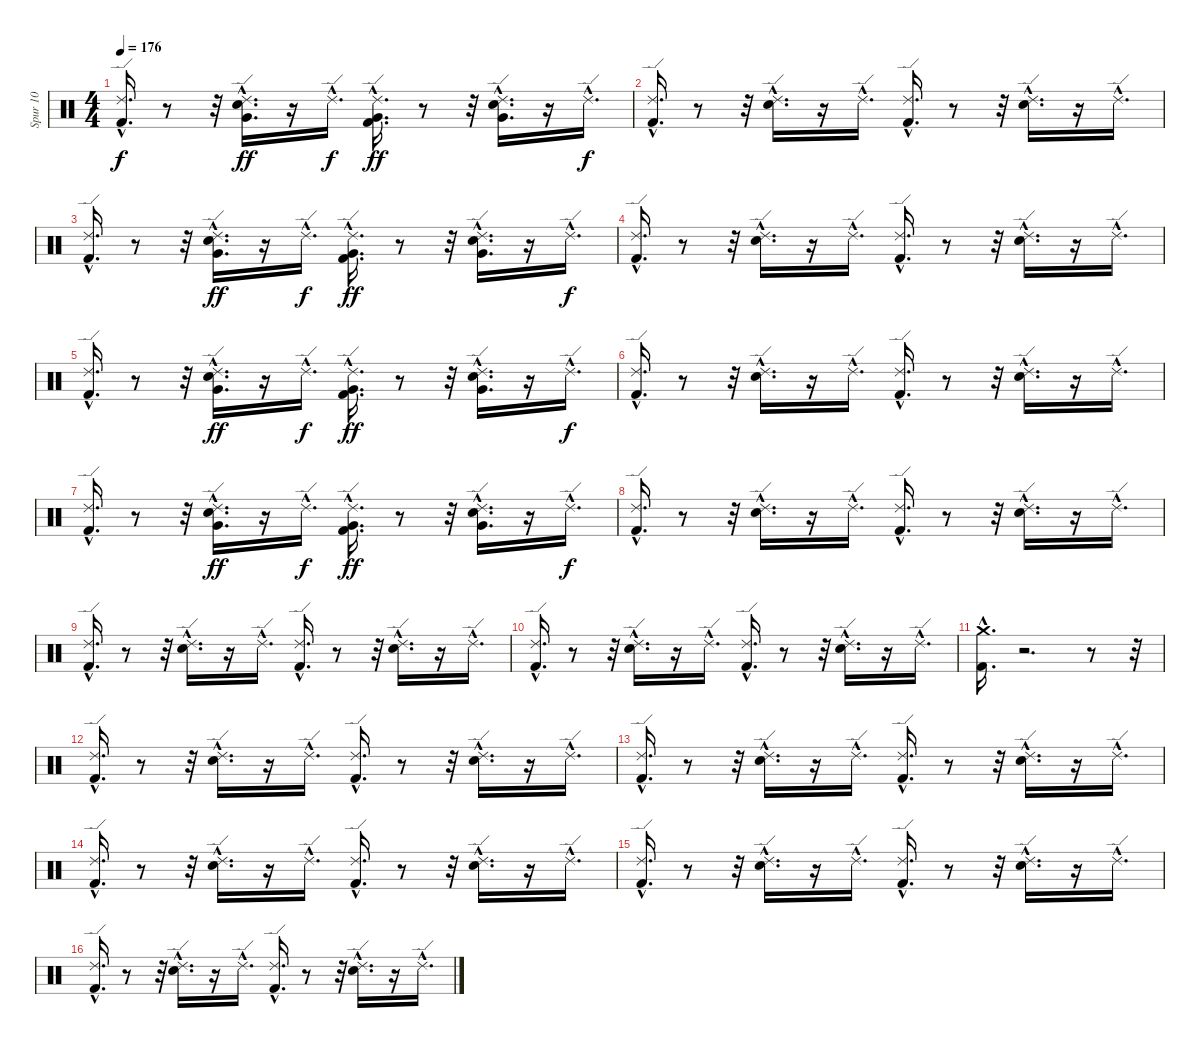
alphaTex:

\track ("Spur 10" "Spur 10") {instrument percussion}
\staff {score}
\articulation defaults
\ts (4 4)
\tempo 176
\clef neutral
\ks c
("Ride (edge) 2"{hac} "Kick (hit) 2"{hac}).16{d dy f} r.8 r.32 ("Ride (edge) 2"{hac} "Snare (hit) 2"{hac} "Very Low Tom (hit)"{hac}).16{d dy ff} r.16 "Ride (edge) 2"{hac}.16{d dy f} ("Ride (edge) 2"{hac} "Kick (hit) 2"{hac} "Very Low Tom (hit)"{hac}).16{d dy ff} r.8 r.32 ("Ride (edge) 2"{hac} "Snare (hit) 2"{hac} "Very Low Tom (hit)"{hac}).16{d} r.16 "Ride (edge) 2"{hac}.16{d dy f} |
("Ride (edge) 2"{hac} "Kick (hit) 2"{hac}).16{d} r.8 r.32 ("Ride (edge) 2"{hac} "Snare (hit) 2"{hac}).16{d} r.16 "Ride (edge) 2"{hac}.16{d} ("Ride (edge) 2"{hac} "Kick (hit) 2"{hac}).16{d} r.8 r.32 ("Ride (edge) 2"{hac} "Snare (hit) 2"{hac}).16{d} r.16 "Ride (edge) 2"{hac}.16{d} |
("Ride (edge) 2"{hac} "Kick (hit) 2"{hac}).16{d} r.8 r.32 ("Ride (edge) 2"{hac} "Snare (hit) 2"{hac} "Very Low Tom (hit)"{hac}).16{d dy ff} r.16 "Ride (edge) 2"{hac}.16{d dy f} ("Ride (edge) 2"{hac} "Kick (hit) 2"{hac} "Very Low Tom (hit)"{hac}).16{d dy ff} r.8 r.32 ("Ride (edge) 2"{hac} "Snare (hit) 2"{hac} "Very Low Tom (hit)"{hac}).16{d} r.16 "Ride (edge) 2"{hac}.16{d dy f} |
("Ride (edge) 2"{hac} "Kick (hit) 2"{hac}).16{d} r.8 r.32 ("Ride (edge) 2"{hac} "Snare (hit) 2"{hac}).16{d} r.16 "Ride (edge) 2"{hac}.16{d} ("Ride (edge) 2"{hac} "Kick (hit) 2"{hac}).16{d} r.8 r.32 ("Ride (edge) 2"{hac} "Snare (hit) 2"{hac}).16{d} r.16 "Ride (edge) 2"{hac}.16{d} |
("Ride (edge) 2"{hac} "Kick (hit) 2"{hac}).16{d} r.8 r.32 ("Ride (edge) 2"{hac} "Snare (hit) 2"{hac} "Very Low Tom (hit)"{hac}).16{d dy ff} r.16 "Ride (edge) 2"{hac}.16{d dy f} ("Ride (edge) 2"{hac} "Kick (hit) 2"{hac} "Very Low Tom (hit)"{hac}).16{d dy ff} r.8 r.32 ("Ride (edge) 2"{hac} "Snare (hit) 2"{hac} "Very Low Tom (hit)"{hac}).16{d} r.16 "Ride (edge) 2"{hac}.16{d dy f} |
("Ride (edge) 2"{hac} "Kick (hit) 2"{hac}).16{d} r.8 r.32 ("Ride (edge) 2"{hac} "Snare (hit) 2"{hac}).16{d} r.16 "Ride (edge) 2"{hac}.16{d} ("Ride (edge) 2"{hac} "Kick (hit) 2"{hac}).16{d} r.8 r.32 ("Ride (edge) 2"{hac} "Snare (hit) 2"{hac}).16{d} r.16 "Ride (edge) 2"{hac}.16{d} |
("Ride (edge) 2"{hac} "Kick (hit) 2"{hac}).16{d} r.8 r.32 ("Ride (edge) 2"{hac} "Snare (hit) 2"{hac} "Very Low Tom (hit)"{hac}).16{d dy ff} r.16 "Ride (edge) 2"{hac}.16{d dy f} ("Ride (edge) 2"{hac} "Kick (hit) 2"{hac} "Very Low Tom (hit)"{hac}).16{d dy ff} r.8 r.32 ("Ride (edge) 2"{hac} "Snare (hit) 2"{hac} "Very Low Tom (hit)"{hac}).16{d} r.16 "Ride (edge) 2"{hac}.16{d dy f} |
("Ride (edge) 2"{hac} "Kick (hit) 2"{hac}).16{d} r.8 r.32 ("Ride (edge) 2"{hac} "Snare (hit) 2"{hac}).16{d} r.16 "Ride (edge) 2"{hac}.16{d} ("Ride (edge) 2"{hac} "Kick (hit) 2"{hac}).16{d} r.8 r.32 ("Ride (edge) 2"{hac} "Snare (hit) 2"{hac}).16{d} r.16 "Ride (edge) 2"{hac}.16{d} |
("Ride (edge) 2"{hac} "Kick (hit) 2"{hac}).16{d} r.8 r.32 ("Ride (edge) 2"{hac} "Snare (hit) 2"{hac}).16{d} r.16 "Ride (edge) 2"{hac}.16{d} ("Ride (edge) 2"{hac} "Kick (hit) 2"{hac}).16{d} r.8 r.32 ("Ride (edge) 2"{hac} "Snare (hit) 2"{hac}).16{d} r.16 "Ride (edge) 2"{hac}.16{d} |
("Ride (edge) 2"{hac} "Kick (hit) 2"{hac}).16{d} r.8 r.32 ("Ride (edge) 2"{hac} "Snare (hit) 2"{hac}).16{d} r.16 "Ride (edge) 2"{hac}.16{d} ("Ride (edge) 2"{hac} "Kick (hit) 2"{hac}).16{d} r.8 r.32 ("Ride (edge) 2"{hac} "Snare (hit) 2"{hac}).16{d} r.16 "Ride (edge) 2"{hac}.16{d} |
("Crash medium (hit)"{hac} "Kick (hit) 2"{hac}).16{d} r.2{d} r.8 r.32 |
("Kick (hit) 2"{hac} "Ride (edge) 2"{hac}).16{d} r.8 r.32 ("Snare (hit) 2"{hac} "Ride (edge) 2"{hac}).16{d} r.16 "Ride (edge) 2"{hac}.16{d} ("Kick (hit) 2"{hac} "Ride (edge) 2"{hac}).16{d} r.8 r.32 ("Snare (hit) 2"{hac} "Ride (edge) 2"{hac}).16{d} r.16 "Ride (edge) 2"{hac}.16{d} |
("Kick (hit) 2"{hac} "Ride (edge) 2"{hac}).16{d} r.8 r.32 ("Snare (hit) 2"{hac} "Ride (edge) 2"{hac}).16{d} r.16 "Ride (edge) 2"{hac}.16{d} ("Kick (hit) 2"{hac} "Ride (edge) 2"{hac}).16{d} r.8 r.32 ("Snare (hit) 2"{hac} "Ride (edge) 2"{hac}).16{d} r.16 "Ride (edge) 2"{hac}.16{d} |
("Kick (hit) 2"{hac} "Ride (edge) 2"{hac}).16{d} r.8 r.32 ("Snare (hit) 2"{hac} "Ride (edge) 2"{hac}).16{d} r.16 "Ride (edge) 2"{hac}.16{d} ("Kick (hit) 2"{hac} "Ride (edge) 2"{hac}).16{d} r.8 r.32 ("Snare (hit) 2"{hac} "Ride (edge) 2"{hac}).16{d} r.16 "Ride (edge) 2"{hac}.16{d} |
("Kick (hit) 2"{hac} "Ride (edge) 2"{hac}).16{d} r.8 r.32 ("Snare (hit) 2"{hac} "Ride (edge) 2"{hac}).16{d} r.16 "Ride (edge) 2"{hac}.16{d} ("Kick (hit) 2"{hac} "Ride (edge) 2"{hac}).16{d} r.8 r.32 ("Snare (hit) 2"{hac} "Ride (edge) 2"{hac}).16{d} r.16 "Ride (edge) 2"{hac}.16{d} |
("Kick (hit) 2"{hac} "Ride (edge) 2"{hac}).16{d} r.8 r.32 ("Snare (hit) 2"{hac} "Ride (edge) 2"{hac}).16{d} r.16 "Ride (edge) 2"{hac}.16{d} ("Kick (hit) 2"{hac} "Ride (edge) 2"{hac}).16{d} r.8 r.32 ("Snare (hit) 2"{hac} "Ride (edge) 2"{hac}).16{d} r.16 "Ride (edge) 2"{hac}.16{d}
